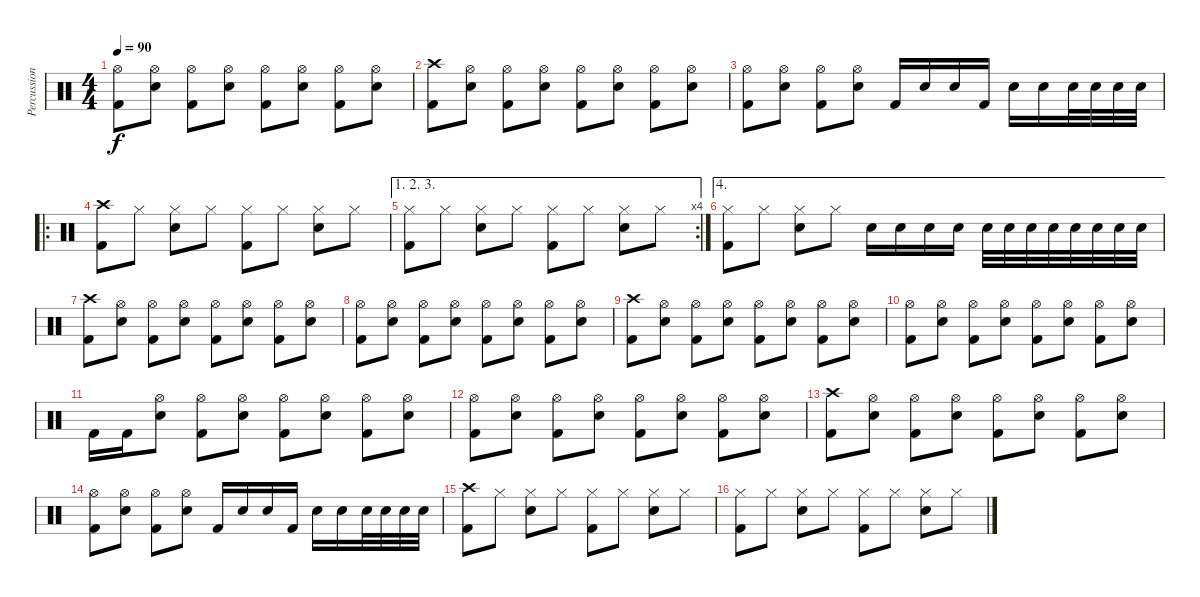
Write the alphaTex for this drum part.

\track ("Percussion" "Percussion") {instrument percussion}
\staff {score}
\articulation defaults
\ts (4 4)
\tempo 90
\clef neutral
\ks c
("Hi-Hat (open)" "Kick (hit) 2").8{dy f} ("Hi-Hat (open)" "Snare (hit) 2").8 ("Hi-Hat (open)" "Kick (hit) 2").8 ("Hi-Hat (open)" "Snare (hit) 2").8 ("Hi-Hat (open)" "Kick (hit) 2").8 ("Hi-Hat (open)" "Snare (hit) 2").8 ("Hi-Hat (open)" "Kick (hit) 2").8 ("Hi-Hat (open)" "Snare (hit) 2").8 |
("Crash high (hit)" "Kick (hit) 2").8 ("Hi-Hat (open)" "Snare (hit) 2").8 ("Hi-Hat (open)" "Kick (hit) 2").8 ("Hi-Hat (open)" "Snare (hit) 2").8 ("Hi-Hat (open)" "Kick (hit) 2").8 ("Hi-Hat (open)" "Snare (hit) 2").8 ("Hi-Hat (open)" "Kick (hit) 2").8 ("Hi-Hat (open)" "Snare (hit) 2").8 |
("Hi-Hat (open)" "Kick (hit) 2").8 ("Hi-Hat (open)" "Snare (hit) 2").8 ("Hi-Hat (open)" "Kick (hit) 2").8 ("Hi-Hat (open)" "Snare (hit) 2").8 "Kick (hit) 2".16 "Snare (hit) 2".16 "Snare (hit) 2".16 "Kick (hit) 2".16 "Snare (hit) 2".16 "Snare (hit) 2".16 "Snare (hit) 2".32 "Snare (hit) 2".32 "Snare (hit) 2".32 "Snare (hit) 2".32 |
\ro
("Crash high (hit)" "Kick (hit) 2").8 "Hi-Hat (closed)".8 ("Hi-Hat (closed)" "Snare (hit) 2").8 "Hi-Hat (closed)".8 ("Hi-Hat (closed)" "Kick (hit) 2").8 "Hi-Hat (closed)".8 ("Hi-Hat (closed)" "Snare (hit) 2").8 "Hi-Hat (closed)".8 |
\ae (1 2 3)
\rc 4
("Hi-Hat (closed)" "Kick (hit) 2").8 "Hi-Hat (closed)".8 ("Hi-Hat (closed)" "Snare (hit) 2").8 "Hi-Hat (closed)".8 ("Hi-Hat (closed)" "Kick (hit) 2").8 "Hi-Hat (closed)".8 ("Hi-Hat (closed)" "Snare (hit) 2").8 "Hi-Hat (closed)".8 |
\ae 4
("Hi-Hat (closed)" "Kick (hit) 2").8 "Hi-Hat (closed)".8 ("Hi-Hat (closed)" "Snare (hit) 2").8 "Hi-Hat (closed)".8 "Snare (hit) 2".16 "Snare (hit) 2".16 "Snare (hit) 2".16 "Snare (hit) 2".16 "Snare (hit) 2".32 "Snare (hit) 2".32 "Snare (hit) 2".32 "Snare (hit) 2".32 "Snare (hit) 2".32 "Snare (hit) 2".32 "Snare (hit) 2".32 "Snare (hit) 2".32 |
("Crash high (hit)" "Kick (hit) 2").8 ("Hi-Hat (open)" "Snare (hit) 2").8 ("Hi-Hat (open)" "Kick (hit) 2").8 ("Hi-Hat (open)" "Snare (hit) 2").8 ("Hi-Hat (open)" "Kick (hit) 2").8 ("Hi-Hat (open)" "Snare (hit) 2").8 ("Hi-Hat (open)" "Kick (hit) 2").8 ("Hi-Hat (open)" "Snare (hit) 2").8 |
("Hi-Hat (open)" "Kick (hit) 2").8 ("Hi-Hat (open)" "Snare (hit) 2").8 ("Hi-Hat (open)" "Kick (hit) 2").8 ("Hi-Hat (open)" "Snare (hit) 2").8 ("Hi-Hat (open)" "Kick (hit) 2").8 ("Hi-Hat (open)" "Snare (hit) 2").8 ("Hi-Hat (open)" "Kick (hit) 2").8 ("Hi-Hat (open)" "Snare (hit) 2").8 |
("Crash high (hit)" "Kick (hit) 2").8 ("Hi-Hat (open)" "Snare (hit) 2").8 ("Hi-Hat (open)" "Kick (hit) 2").8 ("Hi-Hat (open)" "Snare (hit) 2").8 ("Hi-Hat (open)" "Kick (hit) 2").8 ("Hi-Hat (open)" "Snare (hit) 2").8 ("Hi-Hat (open)" "Kick (hit) 2").8 ("Hi-Hat (open)" "Snare (hit) 2").8 |
("Hi-Hat (open)" "Kick (hit) 2").8 ("Hi-Hat (open)" "Snare (hit) 2").8 ("Hi-Hat (open)" "Kick (hit) 2").8 ("Hi-Hat (open)" "Snare (hit) 2").8 ("Hi-Hat (open)" "Kick (hit) 2").8 ("Hi-Hat (open)" "Snare (hit) 2").8 ("Hi-Hat (open)" "Kick (hit) 2").8 ("Hi-Hat (open)" "Snare (hit) 2").8 |
"Kick (hit) 2".16 "Kick (hit) 2".16 ("Hi-Hat (open)" "Snare (hit) 2").8 ("Hi-Hat (open)" "Kick (hit) 2").8 ("Hi-Hat (open)" "Snare (hit) 2").8 ("Hi-Hat (open)" "Kick (hit) 2").8 ("Hi-Hat (open)" "Snare (hit) 2").8 ("Hi-Hat (open)" "Kick (hit) 2").8 ("Hi-Hat (open)" "Snare (hit) 2").8 |
("Hi-Hat (open)" "Kick (hit) 2").8 ("Hi-Hat (open)" "Snare (hit) 2").8 ("Hi-Hat (open)" "Kick (hit) 2").8 ("Hi-Hat (open)" "Snare (hit) 2").8 ("Hi-Hat (open)" "Kick (hit) 2").8 ("Hi-Hat (open)" "Snare (hit) 2").8 ("Hi-Hat (open)" "Kick (hit) 2").8 ("Hi-Hat (open)" "Snare (hit) 2").8 |
("Crash high (hit)" "Kick (hit) 2").8 ("Hi-Hat (open)" "Snare (hit) 2").8 ("Hi-Hat (open)" "Kick (hit) 2").8 ("Hi-Hat (open)" "Snare (hit) 2").8 ("Hi-Hat (open)" "Kick (hit) 2").8 ("Hi-Hat (open)" "Snare (hit) 2").8 ("Hi-Hat (open)" "Kick (hit) 2").8 ("Hi-Hat (open)" "Snare (hit) 2").8 |
("Hi-Hat (open)" "Kick (hit) 2").8 ("Hi-Hat (open)" "Snare (hit) 2").8 ("Hi-Hat (open)" "Kick (hit) 2").8 ("Hi-Hat (open)" "Snare (hit) 2").8 "Kick (hit) 2".16 "Snare (hit) 2".16 "Snare (hit) 2".16 "Kick (hit) 2".16 "Snare (hit) 2".16 "Snare (hit) 2".16 "Snare (hit) 2".32 "Snare (hit) 2".32 "Snare (hit) 2".32 "Snare (hit) 2".32 |
("Crash high (hit)" "Kick (hit) 2").8 "Hi-Hat (closed)".8 ("Hi-Hat (closed)" "Snare (hit) 2").8 "Hi-Hat (closed)".8 ("Hi-Hat (closed)" "Kick (hit) 2").8 "Hi-Hat (closed)".8 ("Hi-Hat (closed)" "Snare (hit) 2").8 "Hi-Hat (closed)".8 |
("Hi-Hat (closed)" "Kick (hit) 2").8 "Hi-Hat (closed)".8 ("Hi-Hat (closed)" "Snare (hit) 2").8 "Hi-Hat (closed)".8 ("Hi-Hat (closed)" "Kick (hit) 2").8 "Hi-Hat (closed)".8 ("Hi-Hat (closed)" "Snare (hit) 2").8 "Hi-Hat (closed)".8
